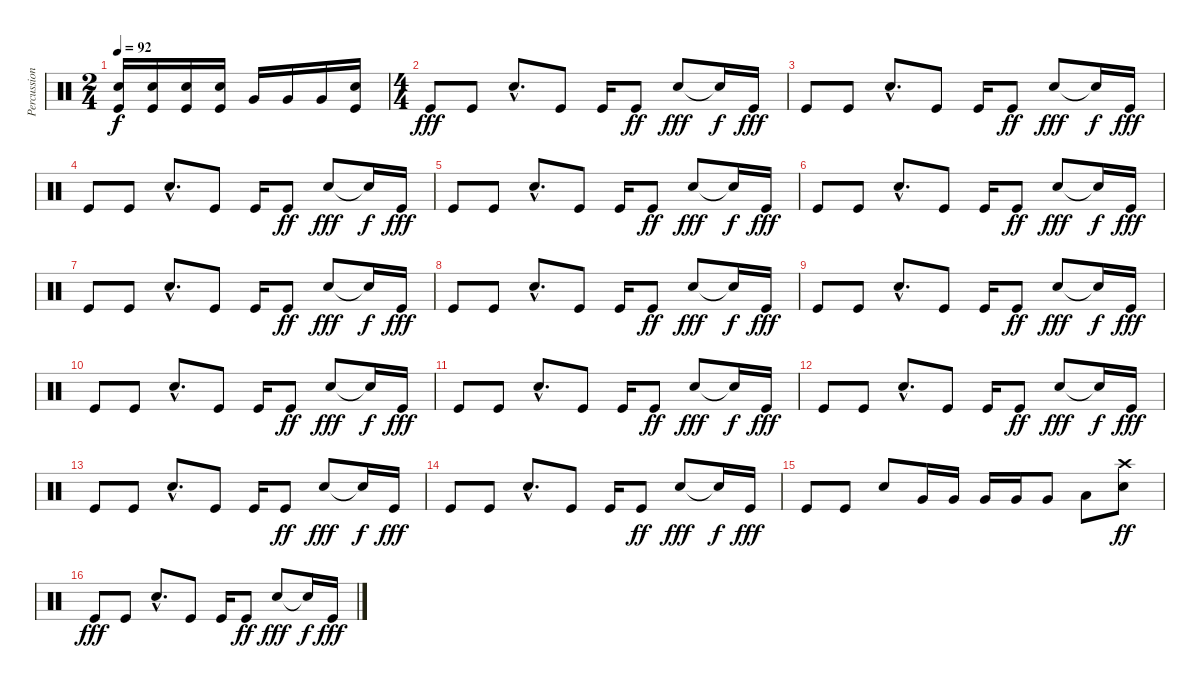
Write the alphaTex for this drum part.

\track ("Percussion" "Percussion") {instrument percussion}
\staff {score}
\articulation defaults
\ts (2 4)
\tempo 92
\clef neutral
\ks c
("Snare (hit) 2" "Kick (hit)").16{dy f} ("Snare (hit) 2" "Kick (hit)").16 ("Snare (hit) 2" "Kick (hit)").16 ("Snare (hit) 2" "Kick (hit)").16 "Very Low Tom (hit)".16 "Very Low Tom (hit)".16 "Very Low Tom (hit)".16 ("Kick (hit)" "Electric Snare (hit)").16 |
\ts (4 4)
"Kick (hit)".8{dy fff} "Kick (hit)".8 "Electric Snare (hit)"{hac}.8{d} "Kick (hit)".8 "Kick (hit)".16 "Kick (hit)".8{dy ff} "Electric Snare (hit)".8{dy fff} "Snare (hit)"{t}.16{dy f} "Kick (hit)".16{dy fff} |
"Kick (hit)".8 "Kick (hit)".8 "Electric Snare (hit)"{hac}.8{d} "Kick (hit)".8 "Kick (hit)".16 "Kick (hit)".8{dy ff} "Electric Snare (hit)".8{dy fff} "Snare (hit)"{t}.16{dy f} "Kick (hit)".16{dy fff} |
"Kick (hit)".8 "Kick (hit)".8 "Electric Snare (hit)"{hac}.8{d} "Kick (hit)".8 "Kick (hit)".16 "Kick (hit)".8{dy ff} "Electric Snare (hit)".8{dy fff} "Snare (hit)"{t}.16{dy f} "Kick (hit)".16{dy fff} |
"Kick (hit)".8 "Kick (hit)".8 "Electric Snare (hit)"{hac}.8{d} "Kick (hit)".8 "Kick (hit)".16 "Kick (hit)".8{dy ff} "Electric Snare (hit)".8{dy fff} "Snare (hit)"{t}.16{dy f} "Kick (hit)".16{dy fff} |
"Kick (hit)".8 "Kick (hit)".8 "Electric Snare (hit)"{hac}.8{d} "Kick (hit)".8 "Kick (hit)".16 "Kick (hit)".8{dy ff} "Electric Snare (hit)".8{dy fff} "Snare (hit)"{t}.16{dy f} "Kick (hit)".16{dy fff} |
"Kick (hit)".8 "Kick (hit)".8 "Electric Snare (hit)"{hac}.8{d} "Kick (hit)".8 "Kick (hit)".16 "Kick (hit)".8{dy ff} "Electric Snare (hit)".8{dy fff} "Snare (hit)"{t}.16{dy f} "Kick (hit)".16{dy fff} |
"Kick (hit)".8 "Kick (hit)".8 "Electric Snare (hit)"{hac}.8{d} "Kick (hit)".8 "Kick (hit)".16 "Kick (hit)".8{dy ff} "Electric Snare (hit)".8{dy fff} "Snare (hit)"{t}.16{dy f} "Kick (hit)".16{dy fff} |
"Kick (hit)".8 "Kick (hit)".8 "Electric Snare (hit)"{hac}.8{d} "Kick (hit)".8 "Kick (hit)".16 "Kick (hit)".8{dy ff} "Electric Snare (hit)".8{dy fff} "Snare (hit)"{t}.16{dy f} "Kick (hit)".16{dy fff} |
"Kick (hit)".8 "Kick (hit)".8 "Electric Snare (hit)"{hac}.8{d} "Kick (hit)".8 "Kick (hit)".16 "Kick (hit)".8{dy ff} "Electric Snare (hit)".8{dy fff} "Snare (hit)"{t}.16{dy f} "Kick (hit)".16{dy fff} |
"Kick (hit)".8 "Kick (hit)".8 "Electric Snare (hit)"{hac}.8{d} "Kick (hit)".8 "Kick (hit)".16 "Kick (hit)".8{dy ff} "Electric Snare (hit)".8{dy fff} "Snare (hit)"{t}.16{dy f} "Kick (hit)".16{dy fff} |
"Kick (hit)".8 "Kick (hit)".8 "Electric Snare (hit)"{hac}.8{d} "Kick (hit)".8 "Kick (hit)".16 "Kick (hit)".8{dy ff} "Electric Snare (hit)".8{dy fff} "Snare (hit)"{t}.16{dy f} "Kick (hit)".16{dy fff} |
"Kick (hit)".8 "Kick (hit)".8 "Electric Snare (hit)"{hac}.8{d} "Kick (hit)".8 "Kick (hit)".16 "Kick (hit)".8{dy ff} "Electric Snare (hit)".8{dy fff} "Snare (hit)"{t}.16{dy f} "Kick (hit)".16{dy fff} |
"Kick (hit)".8 "Kick (hit)".8 "Electric Snare (hit)"{hac}.8{d} "Kick (hit)".8 "Kick (hit)".16 "Kick (hit)".8{dy ff} "Electric Snare (hit)".8{dy fff} "Snare (hit)"{t}.16{dy f} "Kick (hit)".16{dy fff} |
"Kick (hit)".8 "Kick (hit)".8 "Electric Snare (hit)".8 "Very Low Tom (hit)".16 "Very Low Tom (hit)".16 "Very Low Tom (hit)".16 "Very Low Tom (hit)".16 "Very Low Tom (hit)".8 "Low Floor Tom (hit)".8 ("Electric Snare (hit)" "Crash high (hit)").8{dy ff} |
"Kick (hit)".8{dy fff} "Kick (hit)".8 "Electric Snare (hit)"{hac}.8{d} "Kick (hit)".8 "Kick (hit)".16 "Kick (hit)".8{dy ff} "Electric Snare (hit)".8{dy fff} "Snare (hit)"{t}.16{dy f} "Kick (hit)".16{dy fff}
